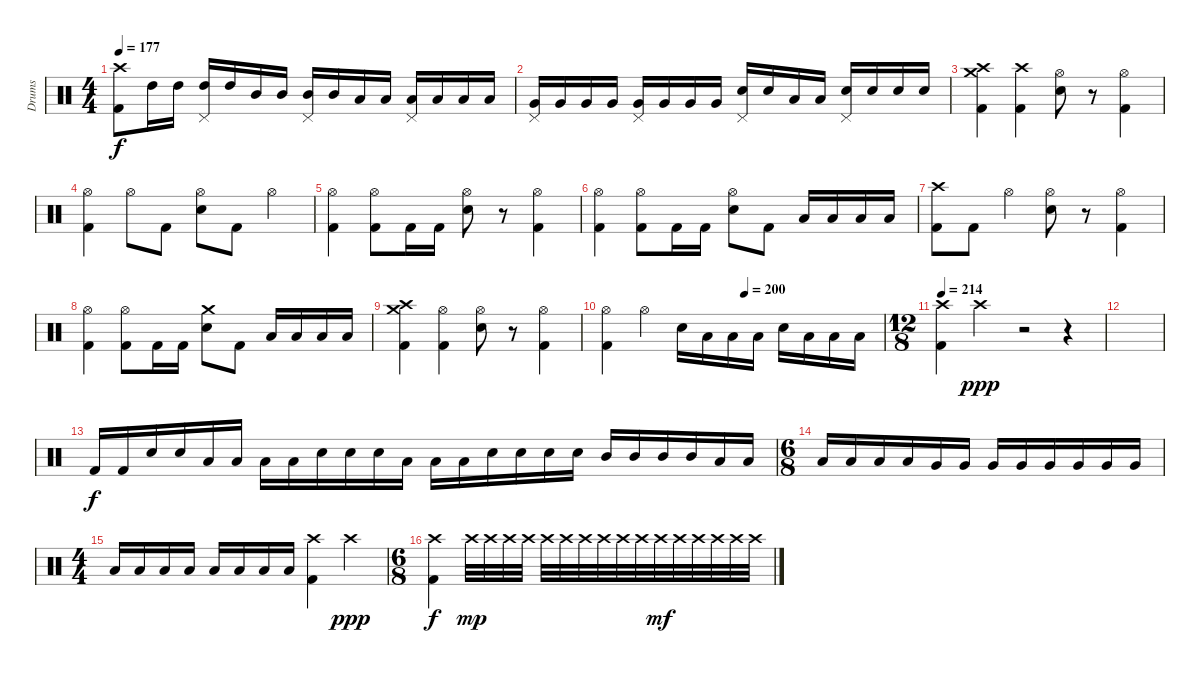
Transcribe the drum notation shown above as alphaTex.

\track ("Drums" "Drums") {instrument percussion}
\staff {score}
\articulation defaults
\ts (4 4)
\tempo 177
\clef neutral
\ks c
("Crash high (hit)" "Kick (hit) 2").8{dy f} "High Tom (hit)".16 "High Tom (hit)".16 ("Pedal Hi-Hat (hit)" "High Tom (hit)").16 "High Tom (hit)".16 "Mid Tom (hit)".16 "Mid Tom (hit)".16 ("Pedal Hi-Hat (hit)" "Mid Tom (hit)").16 "Mid Tom (hit)".16 "Low Tom (hit)".16 "Low Tom (hit)".16 ("Pedal Hi-Hat (hit)" "Low Tom (hit)").16 "Low Tom (hit)".16 "Low Tom (hit)".16 "Low Tom (hit)".16 |
("Pedal Hi-Hat (hit)" "Very Low Tom (hit)").16 "Very Low Tom (hit)".16 "Very Low Tom (hit)".16 "Very Low Tom (hit)".16 ("Pedal Hi-Hat (hit)" "Very Low Tom (hit)").16 "Very Low Tom (hit)".16 "Very Low Tom (hit)".16 "Very Low Tom (hit)".16 ("Pedal Hi-Hat (hit)" "Electric Snare (hit)").16 "Electric Snare (hit)".16 "Low Tom (hit)".16 "Low Tom (hit)".16 ("Pedal Hi-Hat (hit)" "Electric Snare (hit)").16 "Electric Snare (hit)".16 "Electric Snare (hit)".16 "Electric Snare (hit)".16 |
("Crash medium (hit)" "Crash high (hit)" "Kick (hit) 2").4 ("Crash high (hit)" "Kick (hit) 2").4 ("Electric Snare (hit)" "Hi-Hat (open)").8 r.8 ("Kick (hit) 2" "Hi-Hat (open)").4 |
("Hi-Hat (open)" "Kick (hit) 2").4 "Hi-Hat (open)".8 "Kick (hit) 2".8 ("Electric Snare (hit)" "Hi-Hat (open)").8 "Kick (hit) 2".8 "Hi-Hat (open)".4 |
("Hi-Hat (open)" "Kick (hit) 2").4 ("Hi-Hat (open)" "Kick (hit) 2").8 "Kick (hit) 2".16 "Kick (hit) 2".16 ("Electric Snare (hit)" "Hi-Hat (open)").8 r.8 ("Kick (hit) 2" "Hi-Hat (open)").4 |
("Hi-Hat (open)" "Kick (hit) 2").4 ("Hi-Hat (open)" "Kick (hit) 2").8 "Kick (hit) 2".16 "Kick (hit) 2".16 ("Electric Snare (hit)" "Hi-Hat (open)").8 "Kick (hit) 2".8 "Low Tom (hit)".16 "Low Tom (hit)".16 "Low Tom (hit)".16 "Low Tom (hit)".16 |
("Crash high (hit)" "Kick (hit) 2").8 "Kick (hit) 2".8 "Hi-Hat (open)".4 ("Electric Snare (hit)" "Hi-Hat (open)").8 r.8 ("Kick (hit) 2" "Hi-Hat (open)").4 |
("Hi-Hat (open)" "Kick (hit) 2").4 ("Hi-Hat (open)" "Kick (hit) 2").8 "Kick (hit) 2".16 "Kick (hit) 2".16 ("Electric Snare (hit)" "Crash medium (hit)").8 "Kick (hit) 2".8 "Low Tom (hit)".16 "Low Tom (hit)".16 "Low Tom (hit)".16 "Low Tom (hit)".16 |
("Crash medium (hit)" "Crash high (hit)" "Kick (hit) 2").4 ("Hi-Hat (open)" "Kick (hit) 2").4 ("Electric Snare (hit)" "Hi-Hat (open)").8 r.8 ("Kick (hit) 2" "Hi-Hat (open)").4 |
\tempo (200 0.5)
("Hi-Hat (open)" "Kick (hit) 2").4 "Hi-Hat (open)".4 "Electric Snare (hit)".16 "Low Tom (hit)".16 "Low Tom (hit)".16 "Low Tom (hit)".16 "Electric Snare (hit)".16 "Low Tom (hit)".16 "Low Tom (hit)".16 "Low Tom (hit)".16 |
\ts (12 8)
\tempo 214
("Crash high (hit)" "Kick (hit) 2").4 "Crash high (hit)".2{dy ppp} r.2 r.4 |
|
"Kick (hit) 2".16{dy f} "Kick (hit) 2".16 "Electric Snare (hit)".16 "Electric Snare (hit)".16 "Low Tom (hit)".16 "Low Tom (hit)".16 "Low Tom (hit)".16 "Low Tom (hit)".16 "Electric Snare (hit)".16 "Electric Snare (hit)".16 "Electric Snare (hit)".16 "Low Tom (hit)".16 "Low Tom (hit)".16 "Low Tom (hit)".16 "Electric Snare (hit)".16 "Electric Snare (hit)".16 "Electric Snare (hit)".16 "Electric Snare (hit)".16 "Mid Tom (hit)".16 "Mid Tom (hit)".16 "Mid Tom (hit)".16 "Mid Tom (hit)".16 "Low Tom (hit)".16 "Low Tom (hit)".16 |
\ts (6 8)
"Low Tom (hit)".16 "Low Tom (hit)".16 "Low Tom (hit)".16 "Low Tom (hit)".16 "Very Low Tom (hit)".16 "Very Low Tom (hit)".16 "Very Low Tom (hit)".16 "Very Low Tom (hit)".16 "Very Low Tom (hit)".16 "Very Low Tom (hit)".16 "Very Low Tom (hit)".16 "Very Low Tom (hit)".16 |
\ts (4 4)
"Low Floor Tom (hit)".16 "Low Floor Tom (hit)".16 "Low Floor Tom (hit)".16 "Low Floor Tom (hit)".16 "Low Floor Tom (hit)".16 "Low Floor Tom (hit)".16 "Low Floor Tom (hit)".16 "Low Floor Tom (hit)".16 ("Crash high (hit)" "Kick (hit) 2").4 "Crash high (hit)".4{dy ppp} |
\ts (6 8)
("Crash high (hit)" "Kick (hit) 2").4{dy f} "Crash high (hit)".32{dy mp} "Crash high (hit)".32 "Crash high (hit)".32 "Crash high (hit)".32 "Crash high (hit)".32 "Crash high (hit)".32 "Crash high (hit)".32 "Crash high (hit)".32 "Crash high (hit)".32 "Crash high (hit)".32 "Crash high (hit)".32{dy mf} "Crash high (hit)".32 "Crash high (hit)".32 "Crash high (hit)".32 "Crash high (hit)".32 "Crash high (hit)".32
